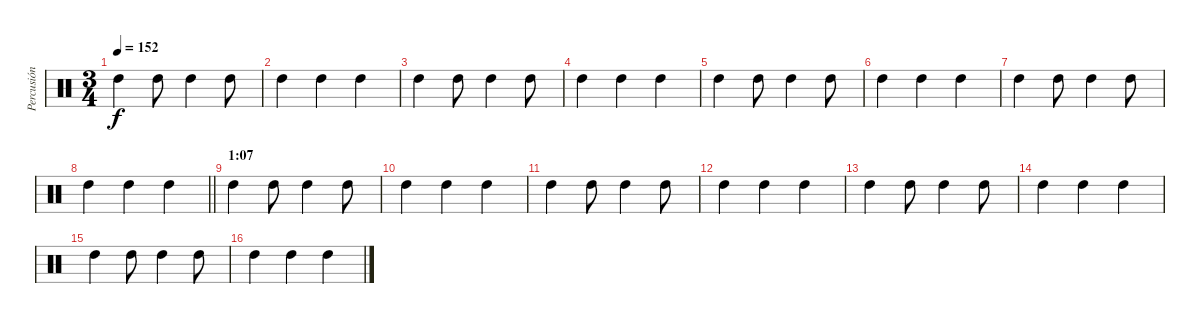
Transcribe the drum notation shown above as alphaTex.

\track ("Percusión" "Percusión") {instrument percussion}
\staff {score}
\articulation defaults
\ts (3 4)
\tempo 152
\clef neutral
\ks c "High Tom (hit)".4{dy f} "High Tom (hit)".8 "High Tom (hit)".4 "High Tom (hit)".8
|
"High Tom (hit)".4 "High Tom (hit)".4 "High Tom (hit)".4 |
"High Tom (hit)".4 "High Tom (hit)".8 "High Tom (hit)".4 "High Tom (hit)".8 |
"High Tom (hit)".4 "High Tom (hit)".4 "High Tom (hit)".4 |
"High Tom (hit)".4 "High Tom (hit)".8 "High Tom (hit)".4 "High Tom (hit)".8 |
"High Tom (hit)".4 "High Tom (hit)".4 "High Tom (hit)".4 |
"High Tom (hit)".4 "High Tom (hit)".8 "High Tom (hit)".4 "High Tom (hit)".8 |
\barLineRight lightlight "High Tom (hit)".4 "High Tom (hit)".4 "High Tom (hit)".4
|
\section ("" "1:07")
"High Tom (hit)".4 "High Tom (hit)".8 "High Tom (hit)".4 "High Tom (hit)".8 |
"High Tom (hit)".4 "High Tom (hit)".4 "High Tom (hit)".4 |
"High Tom (hit)".4 "High Tom (hit)".8 "High Tom (hit)".4 "High Tom (hit)".8 |
"High Tom (hit)".4 "High Tom (hit)".4 "High Tom (hit)".4 |
"High Tom (hit)".4 "High Tom (hit)".8 "High Tom (hit)".4 "High Tom (hit)".8 |
"High Tom (hit)".4 "High Tom (hit)".4 "High Tom (hit)".4 |
"High Tom (hit)".4 "High Tom (hit)".8 "High Tom (hit)".4 "High Tom (hit)".8 |
"High Tom (hit)".4 "High Tom (hit)".4 "High Tom (hit)".4
